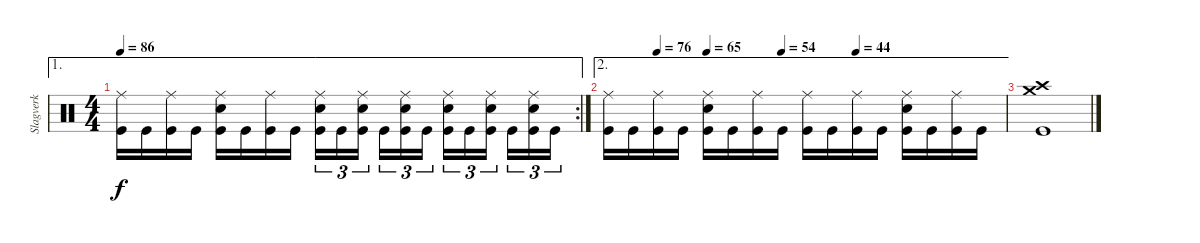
\track ("Slagverk" "Slagverk") {instrument percussion}
\staff {score}
\articulation defaults
\ae 1
\rc 2
\ts (4 4)
\tempo 86
\clef neutral
\ks c
("Ride (middle)" "Kick (hit)").16{dy f} "Kick (hit)".16 ("Ride (middle)" "Kick (hit)").16 "Kick (hit)".16 ("Ride (middle)" "Electric Snare (hit)" "Kick (hit)").16 "Kick (hit)".16 ("Ride (middle)" "Kick (hit)").16 "Kick (hit)".16 ("Ride (middle)" "Electric Snare (hit)" "Kick (hit)").16{tu (3 2)} "Kick (hit)".16{tu (3 2)} ("Ride (middle)" "Electric Snare (hit)" "Kick (hit)").16{tu (3 2)} "Kick (hit)".16{tu (3 2)} ("Ride (middle)" "Electric Snare (hit)" "Kick (hit)").16{tu (3 2)} "Kick (hit)".16{tu (3 2)} ("Ride (middle)" "Electric Snare (hit)" "Kick (hit)").16{tu (3 2)} "Kick (hit)".16{tu (3 2)} ("Ride (middle)" "Electric Snare (hit)" "Kick (hit)").16{tu (3 2)} "Kick (hit)".16{tu (3 2)} ("Ride (middle)" "Electric Snare (hit)" "Kick (hit)").16{tu (3 2)} "Kick (hit)".16{tu (3 2)} |
\ae 2
\tempo (76 0.125)
\tempo (65 0.25)
\tempo (54 0.4375)
\tempo (44 0.625)
("Ride (middle)" "Kick (hit)").16 "Kick (hit)".16 ("Ride (middle)" "Kick (hit)").16 "Kick (hit)".16 ("Ride (middle)" "Electric Snare (hit)" "Kick (hit)").16 "Kick (hit)".16 ("Ride (middle)" "Kick (hit)").16 "Kick (hit)".16 ("Ride (middle)" "Kick (hit)").16 "Kick (hit)".16 ("Ride (middle)" "Kick (hit)").16 "Kick (hit)".16 ("Ride (middle)" "Electric Snare (hit)" "Kick (hit)").16 "Kick (hit)".16 ("Ride (middle)" "Kick (hit)").16 "Kick (hit)".16 |
("Crash medium (hit)" "Crash high (hit)" "Kick (hit)").1
